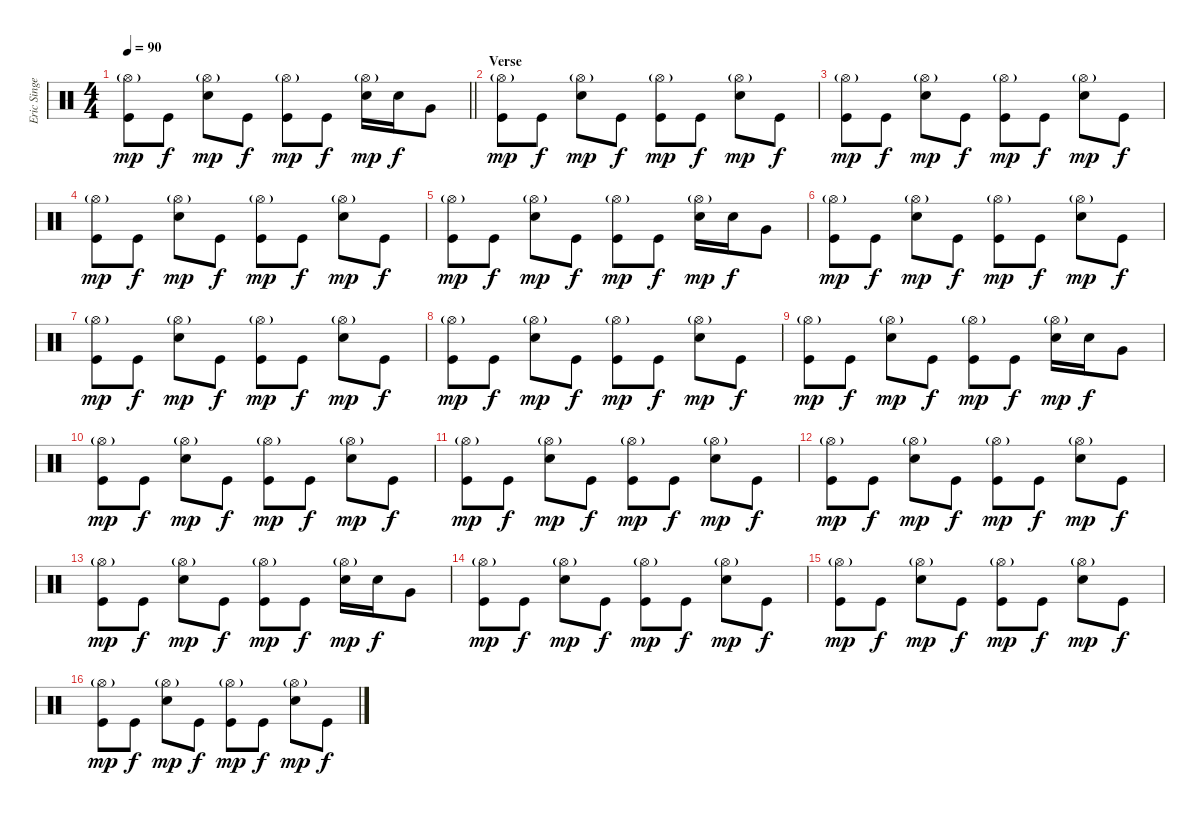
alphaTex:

\track ("Eric Singer (Drums)" "Eric Singe") {instrument percussion}
\staff {score}
\articulation defaults
\ts (4 4)
\tempo 90
\clef neutral
\barLineRight lightlight
\ks c
("Hi-Hat (open)"{g} "Kick (hit)").8{dy mp} "Kick (hit)".8{dy f} ("Hi-Hat (open)"{g} "Snare (hit) 2").8{dy mp} "Kick (hit)".8{dy f} ("Hi-Hat (open)"{g} "Kick (hit)").8{dy mp} "Kick (hit)".8{dy f} ("Hi-Hat (open)"{g} "Snare (hit) 2").16{dy mp} "Snare (hit) 2".16{dy f} "Very Low Tom (hit)".8 |
\section ("" "Verse")
("Hi-Hat (open)"{g} "Kick (hit)").8{dy mp} "Kick (hit)".8{dy f} ("Hi-Hat (open)"{g} "Snare (hit) 2").8{dy mp} "Kick (hit)".8{dy f} ("Hi-Hat (open)"{g} "Kick (hit)").8{dy mp} "Kick (hit)".8{dy f} ("Hi-Hat (open)"{g} "Snare (hit) 2").8{dy mp} "Kick (hit)".8{dy f} |
("Hi-Hat (open)"{g} "Kick (hit)").8{dy mp} "Kick (hit)".8{dy f} ("Hi-Hat (open)"{g} "Snare (hit) 2").8{dy mp} "Kick (hit)".8{dy f} ("Hi-Hat (open)"{g} "Kick (hit)").8{dy mp} "Kick (hit)".8{dy f} ("Hi-Hat (open)"{g} "Snare (hit) 2").8{dy mp} "Kick (hit)".8{dy f} |
("Hi-Hat (open)"{g} "Kick (hit)").8{dy mp} "Kick (hit)".8{dy f} ("Hi-Hat (open)"{g} "Snare (hit) 2").8{dy mp} "Kick (hit)".8{dy f} ("Hi-Hat (open)"{g} "Kick (hit)").8{dy mp} "Kick (hit)".8{dy f} ("Hi-Hat (open)"{g} "Snare (hit) 2").8{dy mp} "Kick (hit)".8{dy f} |
("Hi-Hat (open)"{g} "Kick (hit)").8{dy mp} "Kick (hit)".8{dy f} ("Hi-Hat (open)"{g} "Snare (hit) 2").8{dy mp} "Kick (hit)".8{dy f} ("Hi-Hat (open)"{g} "Kick (hit)").8{dy mp} "Kick (hit)".8{dy f} ("Hi-Hat (open)"{g} "Snare (hit) 2").16{dy mp} "Snare (hit) 2".16{dy f} "Very Low Tom (hit)".8 |
("Hi-Hat (open)"{g} "Kick (hit)").8{dy mp} "Kick (hit)".8{dy f} ("Hi-Hat (open)"{g} "Snare (hit) 2").8{dy mp} "Kick (hit)".8{dy f} ("Hi-Hat (open)"{g} "Kick (hit)").8{dy mp} "Kick (hit)".8{dy f} ("Hi-Hat (open)"{g} "Snare (hit) 2").8{dy mp} "Kick (hit)".8{dy f} |
("Hi-Hat (open)"{g} "Kick (hit)").8{dy mp} "Kick (hit)".8{dy f} ("Hi-Hat (open)"{g} "Snare (hit) 2").8{dy mp} "Kick (hit)".8{dy f} ("Hi-Hat (open)"{g} "Kick (hit)").8{dy mp} "Kick (hit)".8{dy f} ("Hi-Hat (open)"{g} "Snare (hit) 2").8{dy mp} "Kick (hit)".8{dy f} |
("Hi-Hat (open)"{g} "Kick (hit)").8{dy mp} "Kick (hit)".8{dy f} ("Hi-Hat (open)"{g} "Snare (hit) 2").8{dy mp} "Kick (hit)".8{dy f} ("Hi-Hat (open)"{g} "Kick (hit)").8{dy mp} "Kick (hit)".8{dy f} ("Hi-Hat (open)"{g} "Snare (hit) 2").8{dy mp} "Kick (hit)".8{dy f} |
("Hi-Hat (open)"{g} "Kick (hit)").8{dy mp} "Kick (hit)".8{dy f} ("Hi-Hat (open)"{g} "Snare (hit) 2").8{dy mp} "Kick (hit)".8{dy f} ("Hi-Hat (open)"{g} "Kick (hit)").8{dy mp} "Kick (hit)".8{dy f} ("Hi-Hat (open)"{g} "Snare (hit) 2").16{dy mp} "Snare (hit) 2".16{dy f} "Very Low Tom (hit)".8 |
("Hi-Hat (open)"{g} "Kick (hit)").8{dy mp} "Kick (hit)".8{dy f} ("Hi-Hat (open)"{g} "Snare (hit) 2").8{dy mp} "Kick (hit)".8{dy f} ("Hi-Hat (open)"{g} "Kick (hit)").8{dy mp} "Kick (hit)".8{dy f} ("Hi-Hat (open)"{g} "Snare (hit) 2").8{dy mp} "Kick (hit)".8{dy f} |
("Hi-Hat (open)"{g} "Kick (hit)").8{dy mp} "Kick (hit)".8{dy f} ("Hi-Hat (open)"{g} "Snare (hit) 2").8{dy mp} "Kick (hit)".8{dy f} ("Hi-Hat (open)"{g} "Kick (hit)").8{dy mp} "Kick (hit)".8{dy f} ("Hi-Hat (open)"{g} "Snare (hit) 2").8{dy mp} "Kick (hit)".8{dy f} |
("Hi-Hat (open)"{g} "Kick (hit)").8{dy mp} "Kick (hit)".8{dy f} ("Hi-Hat (open)"{g} "Snare (hit) 2").8{dy mp} "Kick (hit)".8{dy f} ("Hi-Hat (open)"{g} "Kick (hit)").8{dy mp} "Kick (hit)".8{dy f} ("Hi-Hat (open)"{g} "Snare (hit) 2").8{dy mp} "Kick (hit)".8{dy f} |
("Hi-Hat (open)"{g} "Kick (hit)").8{dy mp} "Kick (hit)".8{dy f} ("Hi-Hat (open)"{g} "Snare (hit) 2").8{dy mp} "Kick (hit)".8{dy f} ("Hi-Hat (open)"{g} "Kick (hit)").8{dy mp} "Kick (hit)".8{dy f} ("Hi-Hat (open)"{g} "Snare (hit) 2").16{dy mp} "Snare (hit) 2".16{dy f} "Very Low Tom (hit)".8 |
("Hi-Hat (open)"{g} "Kick (hit)").8{dy mp} "Kick (hit)".8{dy f} ("Hi-Hat (open)"{g} "Snare (hit) 2").8{dy mp} "Kick (hit)".8{dy f} ("Hi-Hat (open)"{g} "Kick (hit)").8{dy mp} "Kick (hit)".8{dy f} ("Hi-Hat (open)"{g} "Snare (hit) 2").8{dy mp} "Kick (hit)".8{dy f} |
("Hi-Hat (open)"{g} "Kick (hit)").8{dy mp} "Kick (hit)".8{dy f} ("Hi-Hat (open)"{g} "Snare (hit) 2").8{dy mp} "Kick (hit)".8{dy f} ("Hi-Hat (open)"{g} "Kick (hit)").8{dy mp} "Kick (hit)".8{dy f} ("Hi-Hat (open)"{g} "Snare (hit) 2").8{dy mp} "Kick (hit)".8{dy f} |
("Hi-Hat (open)"{g} "Kick (hit)").8{dy mp} "Kick (hit)".8{dy f} ("Hi-Hat (open)"{g} "Snare (hit) 2").8{dy mp} "Kick (hit)".8{dy f} ("Hi-Hat (open)"{g} "Kick (hit)").8{dy mp} "Kick (hit)".8{dy f} ("Hi-Hat (open)"{g} "Snare (hit) 2").8{dy mp} "Kick (hit)".8{dy f}
